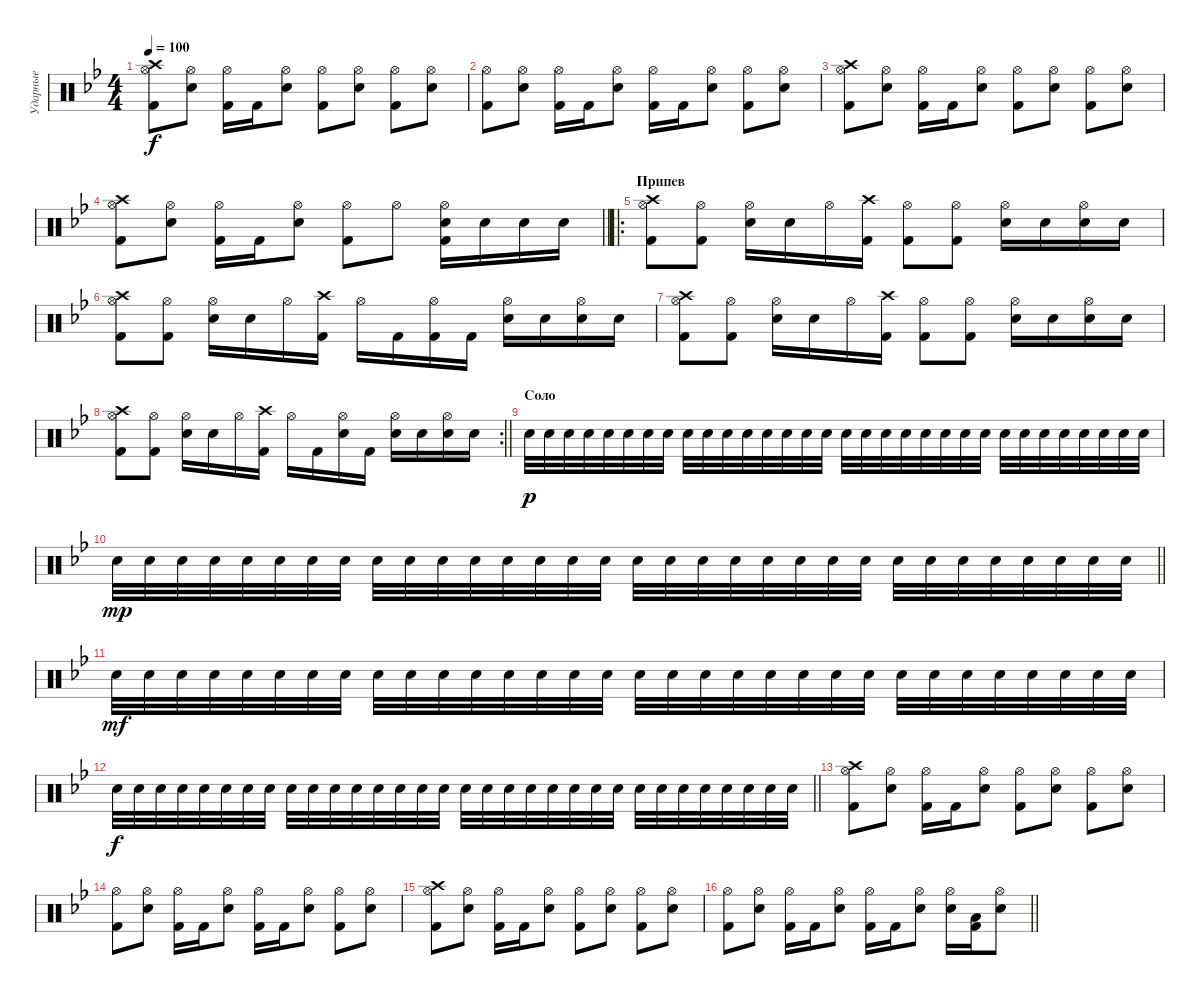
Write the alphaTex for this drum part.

\track ("Ударные" "Ударные") {instrument percussion}
\staff {score}
\articulation defaults
\ts (4 4)
\tempo 100
\clef neutral
\ks gminor
("Crash high (hit)" "Hi-Hat (open)" "Kick (hit) 2").8{dy f} ("Hi-Hat (open)" "Electric Snare (hit)").8 ("Hi-Hat (open)" "Kick (hit) 2").16 "Kick (hit) 2".16 ("Hi-Hat (open)" "Electric Snare (hit)").8 ("Hi-Hat (open)" "Kick (hit) 2").8 ("Hi-Hat (open)" "Electric Snare (hit)").8 ("Hi-Hat (open)" "Kick (hit) 2").8 ("Hi-Hat (open)" "Electric Snare (hit)").8 |
("Hi-Hat (open)" "Kick (hit) 2").8 ("Hi-Hat (open)" "Electric Snare (hit)").8 ("Hi-Hat (open)" "Kick (hit) 2").16 "Kick (hit) 2".16 ("Hi-Hat (open)" "Electric Snare (hit)").8 ("Hi-Hat (open)" "Kick (hit) 2").16 "Kick (hit) 2".16 ("Hi-Hat (open)" "Electric Snare (hit)").8 ("Hi-Hat (open)" "Kick (hit) 2").8 ("Hi-Hat (open)" "Electric Snare (hit)").8 |
("Crash high (hit)" "Hi-Hat (open)" "Kick (hit) 2").8 ("Hi-Hat (open)" "Electric Snare (hit)").8 ("Hi-Hat (open)" "Kick (hit) 2").16 "Kick (hit) 2".16 ("Hi-Hat (open)" "Electric Snare (hit)").8 ("Hi-Hat (open)" "Kick (hit) 2").8 ("Hi-Hat (open)" "Electric Snare (hit)").8 ("Hi-Hat (open)" "Kick (hit) 2").8 ("Hi-Hat (open)" "Electric Snare (hit)").8 |
\barLineRight lightlight
("Crash high (hit)" "Hi-Hat (open)" "Kick (hit) 2").8 ("Hi-Hat (open)" "Electric Snare (hit)").8 ("Hi-Hat (open)" "Kick (hit) 2").16 "Kick (hit) 2".16 ("Hi-Hat (open)" "Electric Snare (hit)").8 ("Hi-Hat (open)" "Kick (hit) 2").8 "Hi-Hat (open)".8 ("Hi-Hat (open)" "Electric Snare (hit)" "Kick (hit) 2").16 "Electric Snare (hit)".16 "Electric Snare (hit)".16 "Electric Snare (hit)".16 |
\ro
\section ("" "Припев")
("Crash high (hit)" "Hi-Hat (open)" "Kick (hit) 2").8 ("Hi-Hat (open)" "Kick (hit) 2").8 ("Hi-Hat (open)" "Electric Snare (hit)").16 "Electric Snare (hit)".16 "Hi-Hat (open)".16 ("Crash high (hit)" "Kick (hit) 2").16 ("Hi-Hat (open)" "Kick (hit) 2").8 ("Hi-Hat (open)" "Kick (hit) 2").8 ("Hi-Hat (open)" "Electric Snare (hit)").16 "Electric Snare (hit)".16 ("Hi-Hat (open)" "Electric Snare (hit)").16 "Electric Snare (hit)".16 |
("Crash high (hit)" "Hi-Hat (open)" "Kick (hit) 2").8 ("Hi-Hat (open)" "Kick (hit) 2").8 ("Hi-Hat (open)" "Electric Snare (hit)").16 "Electric Snare (hit)".16 "Hi-Hat (open)".16 ("Crash high (hit)" "Kick (hit) 2").16 "Hi-Hat (open)".16 "Kick (hit) 2".16 ("Hi-Hat (open)" "Kick (hit) 2").16 "Kick (hit) 2".16 ("Hi-Hat (open)" "Electric Snare (hit)").16 "Electric Snare (hit)".16 ("Hi-Hat (open)" "Electric Snare (hit)").16 "Electric Snare (hit)".16 |
("Crash high (hit)" "Hi-Hat (open)" "Kick (hit) 2").8 ("Hi-Hat (open)" "Kick (hit) 2").8 ("Hi-Hat (open)" "Electric Snare (hit)").16 "Electric Snare (hit)".16 "Hi-Hat (open)".16 ("Crash high (hit)" "Kick (hit) 2").16 ("Hi-Hat (open)" "Kick (hit) 2").8 ("Hi-Hat (open)" "Kick (hit) 2").8 ("Hi-Hat (open)" "Electric Snare (hit)").16 "Electric Snare (hit)".16 ("Hi-Hat (open)" "Electric Snare (hit)").16 "Electric Snare (hit)".16 |
\rc 2
\barLineRight lightlight
("Crash high (hit)" "Hi-Hat (open)" "Kick (hit) 2").8 ("Hi-Hat (open)" "Kick (hit) 2").8 ("Hi-Hat (open)" "Electric Snare (hit)").16 "Electric Snare (hit)".16 "Hi-Hat (open)".16 ("Crash high (hit)" "Kick (hit) 2").16 "Hi-Hat (open)".16 "Kick (hit) 2".16 ("Hi-Hat (open)" "Electric Snare (hit)").16 "Kick (hit) 2".16 ("Hi-Hat (open)" "Electric Snare (hit)").16 "Electric Snare (hit)".16 ("Hi-Hat (open)" "Electric Snare (hit)").16 "Electric Snare (hit)".16 |
\section ("" "Соло")
"Electric Snare (hit)".32{dy p volume 13} "Electric Snare (hit)".32 "Electric Snare (hit)".32 "Electric Snare (hit)".32 "Electric Snare (hit)".32 "Electric Snare (hit)".32 "Electric Snare (hit)".32 "Electric Snare (hit)".32 "Electric Snare (hit)".32 "Electric Snare (hit)".32 "Electric Snare (hit)".32 "Electric Snare (hit)".32 "Electric Snare (hit)".32 "Electric Snare (hit)".32 "Electric Snare (hit)".32 "Electric Snare (hit)".32 "Electric Snare (hit)".32 "Electric Snare (hit)".32 "Electric Snare (hit)".32 "Electric Snare (hit)".32 "Electric Snare (hit)".32 "Electric Snare (hit)".32 "Electric Snare (hit)".32 "Electric Snare (hit)".32 "Electric Snare (hit)".32 "Electric Snare (hit)".32 "Electric Snare (hit)".32 "Electric Snare (hit)".32 "Electric Snare (hit)".32 "Electric Snare (hit)".32 "Electric Snare (hit)".32 "Electric Snare (hit)".32 |
\barLineRight lightlight "Electric Snare (hit)".32{dy mp} "Electric Snare (hit)".32 "Electric Snare (hit)".32 "Electric Snare (hit)".32 "Electric Snare (hit)".32 "Electric Snare (hit)".32 "Electric Snare (hit)".32 "Electric Snare (hit)".32 "Electric Snare (hit)".32 "Electric Snare (hit)".32 "Electric Snare (hit)".32 "Electric Snare (hit)".32 "Electric Snare (hit)".32 "Electric Snare (hit)".32 "Electric Snare (hit)".32 "Electric Snare (hit)".32 "Electric Snare (hit)".32 "Electric Snare (hit)".32 "Electric Snare (hit)".32 "Electric Snare (hit)".32 "Electric Snare (hit)".32 "Electric Snare (hit)".32 "Electric Snare (hit)".32 "Electric Snare (hit)".32 "Electric Snare (hit)".32 "Electric Snare (hit)".32 "Electric Snare (hit)".32 "Electric Snare (hit)".32 "Electric Snare (hit)".32 "Electric Snare (hit)".32 "Electric Snare (hit)".32 "Electric Snare (hit)".32
|
"Electric Snare (hit)".32{dy mf volume 13} "Electric Snare (hit)".32 "Electric Snare (hit)".32 "Electric Snare (hit)".32 "Electric Snare (hit)".32 "Electric Snare (hit)".32 "Electric Snare (hit)".32 "Electric Snare (hit)".32 "Electric Snare (hit)".32 "Electric Snare (hit)".32 "Electric Snare (hit)".32 "Electric Snare (hit)".32 "Electric Snare (hit)".32 "Electric Snare (hit)".32 "Electric Snare (hit)".32 "Electric Snare (hit)".32 "Electric Snare (hit)".32 "Electric Snare (hit)".32 "Electric Snare (hit)".32 "Electric Snare (hit)".32 "Electric Snare (hit)".32 "Electric Snare (hit)".32 "Electric Snare (hit)".32 "Electric Snare (hit)".32 "Electric Snare (hit)".32 "Electric Snare (hit)".32 "Electric Snare (hit)".32 "Electric Snare (hit)".32 "Electric Snare (hit)".32 "Electric Snare (hit)".32 "Electric Snare (hit)".32 "Electric Snare (hit)".32 |
\barLineRight lightlight "Electric Snare (hit)".32{dy f} "Electric Snare (hit)".32 "Electric Snare (hit)".32 "Electric Snare (hit)".32 "Electric Snare (hit)".32 "Electric Snare (hit)".32 "Electric Snare (hit)".32 "Electric Snare (hit)".32 "Electric Snare (hit)".32 "Electric Snare (hit)".32 "Electric Snare (hit)".32 "Electric Snare (hit)".32 "Electric Snare (hit)".32 "Electric Snare (hit)".32 "Electric Snare (hit)".32 "Electric Snare (hit)".32 "Electric Snare (hit)".32 "Electric Snare (hit)".32 "Electric Snare (hit)".32 "Electric Snare (hit)".32 "Electric Snare (hit)".32 "Electric Snare (hit)".32 "Electric Snare (hit)".32 "Electric Snare (hit)".32 "Electric Snare (hit)".32 "Electric Snare (hit)".32 "Electric Snare (hit)".32 "Electric Snare (hit)".32 "Electric Snare (hit)".32 "Electric Snare (hit)".32 "Electric Snare (hit)".32 "Electric Snare (hit)".32
|
("Crash high (hit)" "Hi-Hat (open)" "Kick (hit) 2").8 ("Hi-Hat (open)" "Electric Snare (hit)").8 ("Hi-Hat (open)" "Kick (hit) 2").16 "Kick (hit) 2".16 ("Hi-Hat (open)" "Electric Snare (hit)").8 ("Hi-Hat (open)" "Kick (hit) 2").8 ("Hi-Hat (open)" "Electric Snare (hit)").8 ("Hi-Hat (open)" "Kick (hit) 2").8 ("Hi-Hat (open)" "Electric Snare (hit)").8 |
("Hi-Hat (open)" "Kick (hit) 2").8 ("Hi-Hat (open)" "Electric Snare (hit)").8 ("Hi-Hat (open)" "Kick (hit) 2").16 "Kick (hit) 2".16 ("Hi-Hat (open)" "Electric Snare (hit)").8 ("Hi-Hat (open)" "Kick (hit) 2").16 "Kick (hit) 2".16 ("Hi-Hat (open)" "Electric Snare (hit)").8 ("Hi-Hat (open)" "Kick (hit) 2").8 ("Hi-Hat (open)" "Electric Snare (hit)").8 |
("Crash high (hit)" "Hi-Hat (open)" "Kick (hit) 2").8 ("Hi-Hat (open)" "Electric Snare (hit)").8 ("Hi-Hat (open)" "Kick (hit) 2").16 "Kick (hit) 2".16 ("Hi-Hat (open)" "Electric Snare (hit)").8 ("Hi-Hat (open)" "Kick (hit) 2").8 ("Hi-Hat (open)" "Electric Snare (hit)").8 ("Hi-Hat (open)" "Kick (hit) 2").8 ("Hi-Hat (open)" "Electric Snare (hit)").8 |
\barLineRight lightlight
("Hi-Hat (open)" "Kick (hit) 2").8 ("Hi-Hat (open)" "Electric Snare (hit)").8 ("Hi-Hat (open)" "Kick (hit) 2").16 "Kick (hit) 2".16 ("Hi-Hat (open)" "Electric Snare (hit)").8 ("Hi-Hat (open)" "Kick (hit) 2").16 "Kick (hit) 2".16 ("Hi-Hat (open)" "Electric Snare (hit)").8 ("Hi-Hat (open)" "Electric Snare (hit)").16 ("Low Tom (hit)" "Kick (hit) 2").16 ("Hi-Hat (open)" "Electric Snare (hit)").8
